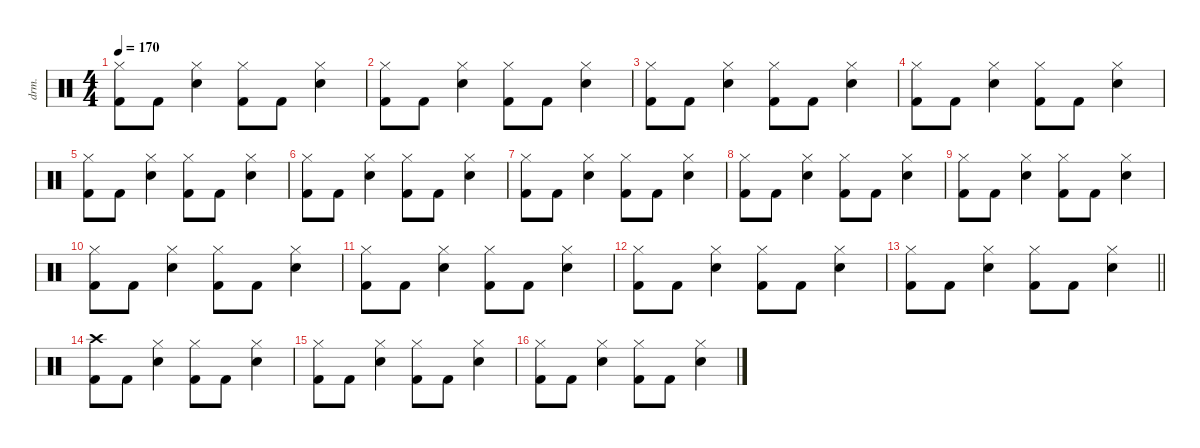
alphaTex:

\defaultSystemsLayout 4
\hideDynamics
\bracketExtendMode nobrackets
\otherSystemsTrackNameOrientation horizontal
\track ("Percussion" "drm.") {instrument percussion}
\staff {score}
\articulation defaults
\ts (4 4)
\tempo 170
\clef neutral
\ks c
("Hi-Hat (closed)" "Kick (hit) 2").8{dy f beam Down} "Kick (hit) 2".8{beam Down} ("Hi-Hat (closed)" "Snare (hit) 2").4{beam Down} ("Hi-Hat (closed)" "Kick (hit) 2").8{beam Down} "Kick (hit) 2".8{beam Down} ("Hi-Hat (closed)" "Snare (hit) 2").4{beam Down} |
("Hi-Hat (closed)" "Kick (hit) 2").8{beam Down} "Kick (hit) 2".8{beam Down} ("Hi-Hat (closed)" "Snare (hit) 2").4{beam Down} ("Hi-Hat (closed)" "Kick (hit) 2").8{beam Down} "Kick (hit) 2".8{beam Down} ("Hi-Hat (closed)" "Snare (hit) 2").4{beam Down} |
("Hi-Hat (closed)" "Kick (hit) 2").8{beam Down} "Kick (hit) 2".8{beam Down} ("Hi-Hat (closed)" "Snare (hit) 2").4{beam Down} ("Hi-Hat (closed)" "Kick (hit) 2").8{beam Down} "Kick (hit) 2".8{beam Down} ("Hi-Hat (closed)" "Snare (hit) 2").4{beam Down} |
("Hi-Hat (closed)" "Kick (hit) 2").8{beam Down} "Kick (hit) 2".8{beam Down} ("Hi-Hat (closed)" "Snare (hit) 2").4{beam Down} ("Hi-Hat (closed)" "Kick (hit) 2").8{beam Down} "Kick (hit) 2".8{beam Down} ("Hi-Hat (closed)" "Snare (hit) 2").4{beam Down} |
("Hi-Hat (closed)" "Kick (hit) 2").8{beam Down} "Kick (hit) 2".8{beam Down} ("Hi-Hat (closed)" "Snare (hit) 2").4{beam Down} ("Hi-Hat (closed)" "Kick (hit) 2").8{beam Down} "Kick (hit) 2".8{beam Down} ("Hi-Hat (closed)" "Snare (hit) 2").4{beam Down} |
("Hi-Hat (closed)" "Kick (hit) 2").8{beam Down} "Kick (hit) 2".8{beam Down} ("Hi-Hat (closed)" "Snare (hit) 2").4{beam Down} ("Hi-Hat (closed)" "Kick (hit) 2").8{beam Down} "Kick (hit) 2".8{beam Down} ("Hi-Hat (closed)" "Snare (hit) 2").4{beam Down} |
("Hi-Hat (closed)" "Kick (hit) 2").8{beam Down} "Kick (hit) 2".8{beam Down} ("Hi-Hat (closed)" "Snare (hit) 2").4{beam Down} ("Hi-Hat (closed)" "Kick (hit) 2").8{beam Down} "Kick (hit) 2".8{beam Down} ("Hi-Hat (closed)" "Snare (hit) 2").4{beam Down} |
("Hi-Hat (closed)" "Kick (hit) 2").8{beam Down} "Kick (hit) 2".8{beam Down} ("Hi-Hat (closed)" "Snare (hit) 2").4{beam Down} ("Hi-Hat (closed)" "Kick (hit) 2").8{beam Down} "Kick (hit) 2".8{beam Down} ("Hi-Hat (closed)" "Snare (hit) 2").4{beam Down} |
("Hi-Hat (closed)" "Kick (hit) 2").8{beam Down} "Kick (hit) 2".8{beam Down} ("Hi-Hat (closed)" "Snare (hit) 2").4{beam Down} ("Hi-Hat (closed)" "Kick (hit) 2").8{beam Down} "Kick (hit) 2".8{beam Down} ("Hi-Hat (closed)" "Snare (hit) 2").4{beam Down} |
("Hi-Hat (closed)" "Kick (hit) 2").8{beam Down} "Kick (hit) 2".8{beam Down} ("Hi-Hat (closed)" "Snare (hit) 2").4{beam Down} ("Hi-Hat (closed)" "Kick (hit) 2").8{beam Down} "Kick (hit) 2".8{beam Down} ("Hi-Hat (closed)" "Snare (hit) 2").4{beam Down} |
("Hi-Hat (closed)" "Kick (hit) 2").8{beam Down} "Kick (hit) 2".8{beam Down} ("Hi-Hat (closed)" "Snare (hit) 2").4{beam Down} ("Hi-Hat (closed)" "Kick (hit) 2").8{beam Down} "Kick (hit) 2".8{beam Down} ("Hi-Hat (closed)" "Snare (hit) 2").4{beam Down} |
("Hi-Hat (closed)" "Kick (hit) 2").8{beam Down} "Kick (hit) 2".8{beam Down} ("Hi-Hat (closed)" "Snare (hit) 2").4{beam Down} ("Hi-Hat (closed)" "Kick (hit) 2").8{beam Down} "Kick (hit) 2".8{beam Down} ("Hi-Hat (closed)" "Snare (hit) 2").4{beam Down} |
\barLineRight lightlight
("Hi-Hat (closed)" "Kick (hit) 2").8{beam Down} "Kick (hit) 2".8{beam Down} ("Hi-Hat (closed)" "Snare (hit) 2").4{beam Down} ("Hi-Hat (closed)" "Kick (hit) 2").8{beam Down} "Kick (hit) 2".8{beam Down} ("Hi-Hat (closed)" "Snare (hit) 2").4{beam Down} |
("Crash high (hit)" "Kick (hit) 2").8{beam Down} "Kick (hit) 2".8{beam Down} ("Hi-Hat (closed)" "Snare (hit) 2").4{beam Down} ("Hi-Hat (closed)" "Kick (hit) 2").8{beam Down} "Kick (hit) 2".8{beam Down} ("Hi-Hat (closed)" "Snare (hit) 2").4{beam Down} |
("Hi-Hat (closed)" "Kick (hit) 2").8{beam Down} "Kick (hit) 2".8{beam Down} ("Hi-Hat (closed)" "Snare (hit) 2").4{beam Down} ("Hi-Hat (closed)" "Kick (hit) 2").8{beam Down} "Kick (hit) 2".8{beam Down} ("Hi-Hat (closed)" "Snare (hit) 2").4{beam Down} |
("Hi-Hat (closed)" "Kick (hit) 2").8{beam Down} "Kick (hit) 2".8{beam Down} ("Hi-Hat (closed)" "Snare (hit) 2").4{beam Down} ("Hi-Hat (closed)" "Kick (hit) 2").8{beam Down} "Kick (hit) 2".8{beam Down} ("Hi-Hat (closed)" "Snare (hit) 2").4{beam Down}
